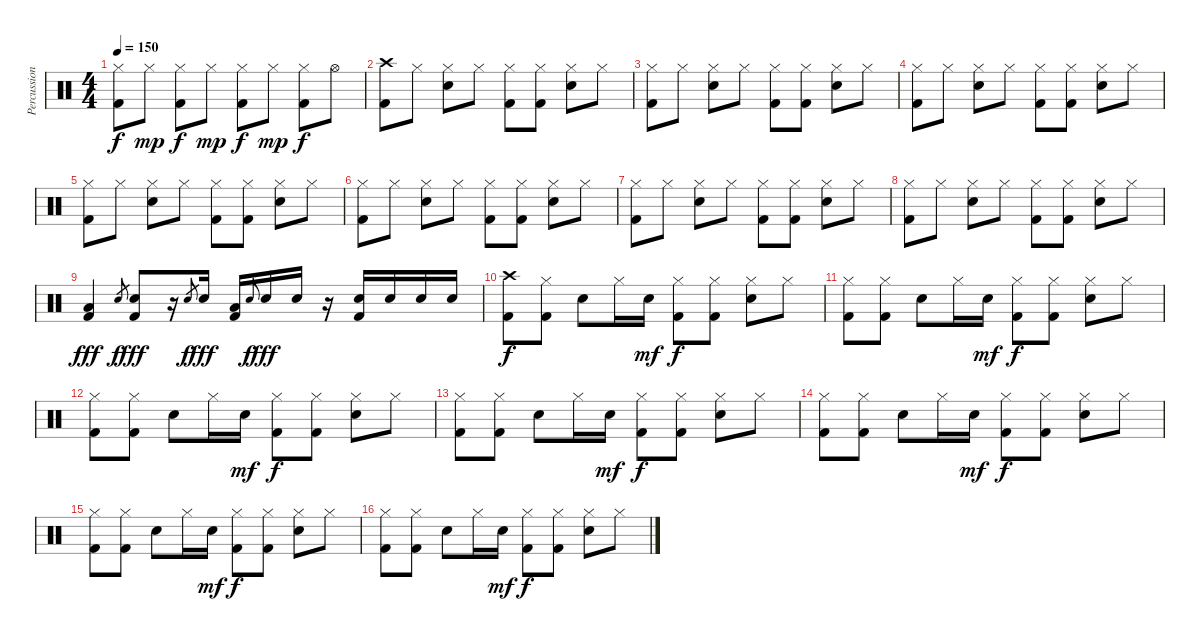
\track ("Percussion" "Percussion") {instrument percussion}
\staff {score}
\articulation defaults
\ts (4 4)
\tempo 150
\clef neutral
\ks c
("Kick (hit) 2" "Hi-Hat (closed)").8{dy f} "Hi-Hat (closed)".8{dy mp} ("Kick (hit) 2" "Hi-Hat (closed)").8{dy f} "Hi-Hat (closed)".8{dy mp} ("Kick (hit) 2" "Hi-Hat (closed)").8{dy f} "Hi-Hat (closed)".8{dy mp} ("Kick (hit) 2" "Hi-Hat (closed)").8{dy f} "Hi-Hat (open)".8 |
("Kick (hit) 2" "Crash high (hit)").8 "Hi-Hat (closed)".8 ("Electric Snare (hit)" "Hi-Hat (closed)").8 "Hi-Hat (closed)".8 ("Kick (hit) 2" "Hi-Hat (closed)").8 ("Kick (hit) 2" "Hi-Hat (closed)").8 ("Electric Snare (hit)" "Hi-Hat (closed)").8 "Hi-Hat (closed)".8 |
("Kick (hit) 2" "Hi-Hat (closed)").8 "Hi-Hat (closed)".8 ("Electric Snare (hit)" "Hi-Hat (closed)").8 "Hi-Hat (closed)".8 ("Kick (hit) 2" "Hi-Hat (closed)").8 ("Kick (hit) 2" "Hi-Hat (closed)").8 ("Electric Snare (hit)" "Hi-Hat (closed)").8 "Hi-Hat (closed)".8 |
("Kick (hit) 2" "Hi-Hat (closed)").8 "Hi-Hat (closed)".8 ("Electric Snare (hit)" "Hi-Hat (closed)").8 "Hi-Hat (closed)".8 ("Kick (hit) 2" "Hi-Hat (closed)").8 ("Kick (hit) 2" "Hi-Hat (closed)").8 ("Electric Snare (hit)" "Hi-Hat (closed)").8 "Hi-Hat (closed)".8 |
("Kick (hit) 2" "Hi-Hat (closed)").8 "Hi-Hat (closed)".8 ("Electric Snare (hit)" "Hi-Hat (closed)").8 "Hi-Hat (closed)".8 ("Kick (hit) 2" "Hi-Hat (closed)").8 ("Kick (hit) 2" "Hi-Hat (closed)").8 ("Electric Snare (hit)" "Hi-Hat (closed)").8 "Hi-Hat (closed)".8 |
("Kick (hit) 2" "Hi-Hat (closed)").8 "Hi-Hat (closed)".8 ("Electric Snare (hit)" "Hi-Hat (closed)").8 "Hi-Hat (closed)".8 ("Kick (hit) 2" "Hi-Hat (closed)").8 ("Kick (hit) 2" "Hi-Hat (closed)").8 ("Electric Snare (hit)" "Hi-Hat (closed)").8 "Hi-Hat (closed)".8 |
("Kick (hit) 2" "Hi-Hat (closed)").8 "Hi-Hat (closed)".8 ("Electric Snare (hit)" "Hi-Hat (closed)").8 "Hi-Hat (closed)".8 ("Kick (hit) 2" "Hi-Hat (closed)").8 ("Kick (hit) 2" "Hi-Hat (closed)").8 ("Electric Snare (hit)" "Hi-Hat (closed)").8 "Hi-Hat (closed)".8 |
("Kick (hit) 2" "Hi-Hat (closed)").8 "Hi-Hat (closed)".8 ("Electric Snare (hit)" "Hi-Hat (closed)").8 "Hi-Hat (closed)".8 ("Kick (hit) 2" "Hi-Hat (closed)").8 ("Kick (hit) 2" "Hi-Hat (closed)").8 ("Electric Snare (hit)" "Hi-Hat (closed)").8 "Hi-Hat (closed)".8 |
("Kick (hit) 2" "Low Tom (hit)").4{dy fff} "Snare (hit) 2".8{gr dy f} ("Snare (hit) 2" "Kick (hit) 2").8{dy fff} r.16 "Snare (hit) 2".8{gr dy f} "Snare (hit) 2".16{dy fff} ("Low Floor Tom (hit)" "Kick (hit) 2").16 "Snare (hit) 2".8{gr onbeat dy f} "Snare (hit) 2".16{dy fff} "Snare (hit) 2".16 r.16 ("Snare (hit) 2" "Kick (hit) 2").16 "Snare (hit) 2".16 "Snare (hit) 2".16 "Snare (hit) 2".16 |
("Kick (hit) 2" "Crash high (hit)").8{dy f} ("Kick (hit) 2" "Hi-Hat (closed)").8 "Electric Snare (hit)".8 "Hi-Hat (closed)".16 "Electric Snare (hit)".16{dy mf} ("Kick (hit) 2" "Hi-Hat (closed)").8{dy f} ("Kick (hit) 2" "Hi-Hat (closed)").8 ("Electric Snare (hit)" "Hi-Hat (closed)").8 "Hi-Hat (closed)".8 |
("Kick (hit) 2" "Hi-Hat (closed)").8 ("Kick (hit) 2" "Hi-Hat (closed)").8 "Electric Snare (hit)".8 "Hi-Hat (closed)".16 "Electric Snare (hit)".16{dy mf} ("Kick (hit) 2" "Hi-Hat (closed)").8{dy f} ("Kick (hit) 2" "Hi-Hat (closed)").8 ("Electric Snare (hit)" "Hi-Hat (closed)").8 "Hi-Hat (closed)".8 |
("Kick (hit) 2" "Hi-Hat (closed)").8 ("Kick (hit) 2" "Hi-Hat (closed)").8 "Electric Snare (hit)".8 "Hi-Hat (closed)".16 "Electric Snare (hit)".16{dy mf} ("Kick (hit) 2" "Hi-Hat (closed)").8{dy f} ("Kick (hit) 2" "Hi-Hat (closed)").8 ("Electric Snare (hit)" "Hi-Hat (closed)").8 "Hi-Hat (closed)".8 |
("Kick (hit) 2" "Hi-Hat (closed)").8 ("Kick (hit) 2" "Hi-Hat (closed)").8 "Electric Snare (hit)".8 "Hi-Hat (closed)".16 "Electric Snare (hit)".16{dy mf} ("Kick (hit) 2" "Hi-Hat (closed)").8{dy f} ("Kick (hit) 2" "Hi-Hat (closed)").8 ("Electric Snare (hit)" "Hi-Hat (closed)").8 "Hi-Hat (closed)".8 |
("Kick (hit) 2" "Hi-Hat (closed)").8 ("Kick (hit) 2" "Hi-Hat (closed)").8 "Electric Snare (hit)".8 "Hi-Hat (closed)".16 "Electric Snare (hit)".16{dy mf} ("Kick (hit) 2" "Hi-Hat (closed)").8{dy f} ("Kick (hit) 2" "Hi-Hat (closed)").8 ("Electric Snare (hit)" "Hi-Hat (closed)").8 "Hi-Hat (closed)".8 |
("Kick (hit) 2" "Hi-Hat (closed)").8 ("Kick (hit) 2" "Hi-Hat (closed)").8 "Electric Snare (hit)".8 "Hi-Hat (closed)".16 "Electric Snare (hit)".16{dy mf} ("Kick (hit) 2" "Hi-Hat (closed)").8{dy f} ("Kick (hit) 2" "Hi-Hat (closed)").8 ("Electric Snare (hit)" "Hi-Hat (closed)").8 "Hi-Hat (closed)".8 |
("Kick (hit) 2" "Hi-Hat (closed)").8 ("Kick (hit) 2" "Hi-Hat (closed)").8 "Electric Snare (hit)".8 "Hi-Hat (closed)".16 "Electric Snare (hit)".16{dy mf} ("Kick (hit) 2" "Hi-Hat (closed)").8{dy f} ("Kick (hit) 2" "Hi-Hat (closed)").8 ("Electric Snare (hit)" "Hi-Hat (closed)").8 "Hi-Hat (closed)".8
